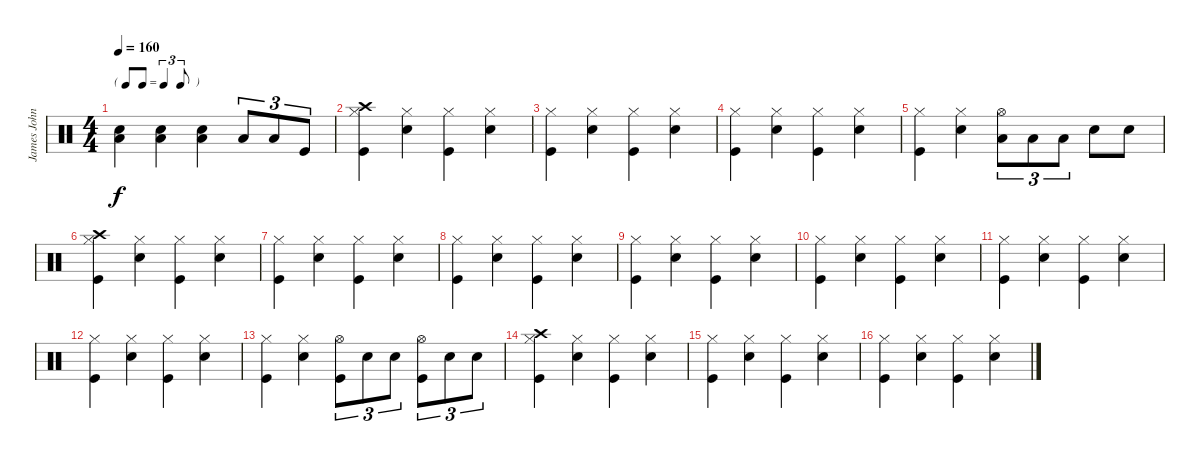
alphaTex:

\track ("James Johnston" "James John") {instrument percussion}
\staff {score}
\articulation defaults
\ts (4 4)
\tf triplet8th
\tempo 160
\clef neutral
\ks c
("Low Floor Tom (hit)" "Electric Snare (hit)").4{dy f} ("Low Floor Tom (hit)" "Electric Snare (hit)").4 ("Low Floor Tom (hit)" "Electric Snare (hit)").4 "Low Floor Tom (hit)".8{tu (3 2)} "Low Floor Tom (hit)".8{tu (3 2)} "Kick (hit)".8{tu (3 2)} |
("Crash high (hit)" "Hi-Hat (closed)" "Kick (hit)").4 ("Hi-Hat (closed)" "Electric Snare (hit)").4 ("Hi-Hat (closed)" "Kick (hit)").4 ("Hi-Hat (closed)" "Electric Snare (hit)").4 |
("Hi-Hat (closed)" "Kick (hit)").4 ("Hi-Hat (closed)" "Electric Snare (hit)").4 ("Hi-Hat (closed)" "Kick (hit)").4 ("Hi-Hat (closed)" "Electric Snare (hit)").4 |
("Hi-Hat (closed)" "Kick (hit)").4 ("Hi-Hat (closed)" "Electric Snare (hit)").4 ("Hi-Hat (closed)" "Kick (hit)").4 ("Hi-Hat (closed)" "Electric Snare (hit)").4 |
("Hi-Hat (closed)" "Kick (hit)").4 ("Hi-Hat (closed)" "Electric Snare (hit)").4 ("Hi-Hat (open)" "Low Tom (hit)").8{tu (3 2)} "Low Tom (hit)".8{tu (3 2)} "Low Tom (hit)".8{tu (3 2)} "Electric Snare (hit)".8 "Electric Snare (hit)".8 |
("Crash high (hit)" "Hi-Hat (closed)" "Kick (hit)").4 ("Hi-Hat (closed)" "Electric Snare (hit)").4 ("Hi-Hat (closed)" "Kick (hit)").4 ("Hi-Hat (closed)" "Electric Snare (hit)").4 |
("Hi-Hat (closed)" "Kick (hit)").4 ("Hi-Hat (closed)" "Electric Snare (hit)").4 ("Hi-Hat (closed)" "Kick (hit)").4 ("Hi-Hat (closed)" "Electric Snare (hit)").4 |
("Hi-Hat (closed)" "Kick (hit)").4 ("Hi-Hat (closed)" "Electric Snare (hit)").4 ("Hi-Hat (closed)" "Kick (hit)").4 ("Hi-Hat (closed)" "Electric Snare (hit)").4 |
("Hi-Hat (closed)" "Kick (hit)").4 ("Hi-Hat (closed)" "Electric Snare (hit)").4 ("Hi-Hat (closed)" "Kick (hit)").4 ("Hi-Hat (closed)" "Electric Snare (hit)").4 |
("Hi-Hat (closed)" "Kick (hit)").4 ("Hi-Hat (closed)" "Electric Snare (hit)").4 ("Hi-Hat (closed)" "Kick (hit)").4 ("Hi-Hat (closed)" "Electric Snare (hit)").4 |
("Hi-Hat (closed)" "Kick (hit)").4 ("Hi-Hat (closed)" "Electric Snare (hit)").4 ("Hi-Hat (closed)" "Kick (hit)").4 ("Hi-Hat (closed)" "Electric Snare (hit)").4 |
("Hi-Hat (closed)" "Kick (hit)").4 ("Hi-Hat (closed)" "Electric Snare (hit)").4 ("Hi-Hat (closed)" "Kick (hit)").4 ("Hi-Hat (closed)" "Electric Snare (hit)").4 |
("Hi-Hat (closed)" "Kick (hit)").4 ("Hi-Hat (closed)" "Electric Snare (hit)").4 ("Hi-Hat (open)" "Kick (hit)").8{tu (3 2)} "Electric Snare (hit)".8{tu (3 2)} "Electric Snare (hit)".8{tu (3 2)} ("Hi-Hat (open)" "Kick (hit)").8{tu (3 2)} "Electric Snare (hit)".8{tu (3 2)} "Electric Snare (hit)".8{tu (3 2)} |
("Crash high (hit)" "Hi-Hat (closed)" "Kick (hit)").4 ("Hi-Hat (closed)" "Electric Snare (hit)").4 ("Hi-Hat (closed)" "Kick (hit)").4 ("Hi-Hat (closed)" "Electric Snare (hit)").4 |
("Hi-Hat (closed)" "Kick (hit)").4 ("Hi-Hat (closed)" "Electric Snare (hit)").4 ("Hi-Hat (closed)" "Kick (hit)").4 ("Hi-Hat (closed)" "Electric Snare (hit)").4 |
("Hi-Hat (closed)" "Kick (hit)").4 ("Hi-Hat (closed)" "Electric Snare (hit)").4 ("Hi-Hat (closed)" "Kick (hit)").4 ("Hi-Hat (closed)" "Electric Snare (hit)").4
